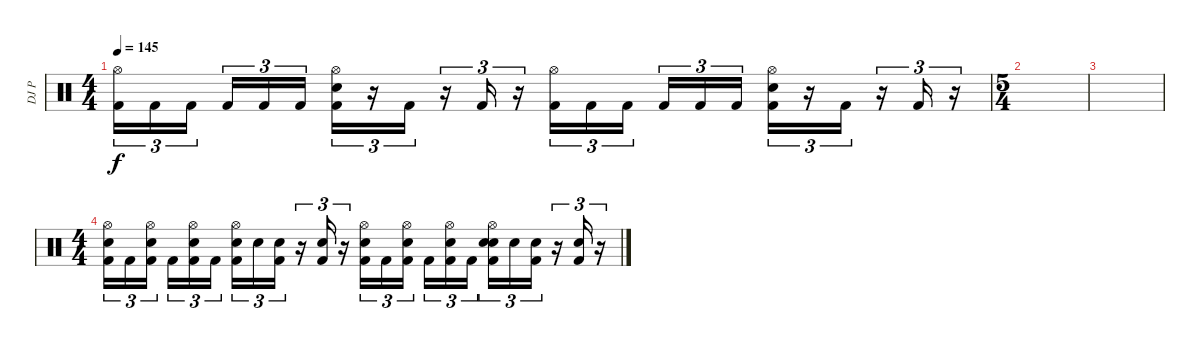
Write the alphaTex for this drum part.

\track ("DJ P" "DJ P") {instrument percussion}
\staff {score}
\articulation defaults
\ts (4 4)
\tempo 145
\clef neutral
\ks c
("Hi-Hat (open)" "Kick (hit) 2").16{tu (3 2) dy f} "Kick (hit) 2".16{tu (3 2)} "Kick (hit) 2".16{tu (3 2) beam splitsecondary} "Kick (hit) 2".16{tu (3 2)} "Kick (hit) 2".16{tu (3 2)} "Kick (hit) 2".16{tu (3 2)} ("Hi-Hat (open)" "Electric Snare (hit)" "Kick (hit) 2").16{tu (3 2)} r.16{tu (3 2)} "Kick (hit) 2".16{tu (3 2)} r.16{tu (3 2)} "Kick (hit) 2".16{tu (3 2)} r.16{tu (3 2)} ("Hi-Hat (open)" "Kick (hit) 2").16{tu (3 2)} "Kick (hit) 2".16{tu (3 2)} "Kick (hit) 2".16{tu (3 2) beam splitsecondary} "Kick (hit) 2".16{tu (3 2)} "Kick (hit) 2".16{tu (3 2)} "Kick (hit) 2".16{tu (3 2)} ("Hi-Hat (open)" "Electric Snare (hit)" "Kick (hit) 2").16{tu (3 2)} r.16{tu (3 2)} "Kick (hit) 2".16{tu (3 2)} r.16{tu (3 2)} "Kick (hit) 2".16{tu (3 2)} r.16{tu (3 2)} |
\ts (5 4)
|
|
\ts (4 4)
("Hi-Hat (open)" "Electric Snare (hit)" "Kick (hit) 2").16{tu (3 2)} "Kick (hit) 2".16{tu (3 2)} ("Hi-Hat (open)" "Electric Snare (hit)" "Kick (hit) 2").16{tu (3 2) beam splitsecondary} "Kick (hit) 2".16{tu (3 2)} ("Hi-Hat (open)" "Electric Snare (hit)" "Kick (hit) 2").16{tu (3 2)} "Kick (hit) 2".16{tu (3 2)} ("Hi-Hat (open)" "Electric Snare (hit)" "Kick (hit) 2").16{tu (3 2)} "Electric Snare (hit)".16{tu (3 2)} ("Electric Snare (hit)" "Kick (hit) 2").16{tu (3 2)} r.16{tu (3 2)} ("Electric Snare (hit)" "Kick (hit) 2").16{tu (3 2)} r.16{tu (3 2)} ("Hi-Hat (open)" "Electric Snare (hit)" "Kick (hit) 2").16{tu (3 2)} "Kick (hit) 2".16{tu (3 2)} ("Hi-Hat (open)" "Electric Snare (hit)" "Kick (hit) 2").16{tu (3 2) beam splitsecondary} "Kick (hit) 2".16{tu (3 2)} ("Hi-Hat (open)" "Electric Snare (hit)" "Kick (hit) 2").16{tu (3 2)} "Kick (hit) 2".16{tu (3 2)} ("Hi-Hat (open)" "Electric Snare (hit)" "Electric Snare (hit)" "Kick (hit) 2").16{tu (3 2)} "Electric Snare (hit)".16{tu (3 2)} ("Electric Snare (hit)" "Kick (hit) 2").16{tu (3 2)} r.16{tu (3 2)} ("Electric Snare (hit)" "Kick (hit) 2").16{tu (3 2)} r.16{tu (3 2)}
